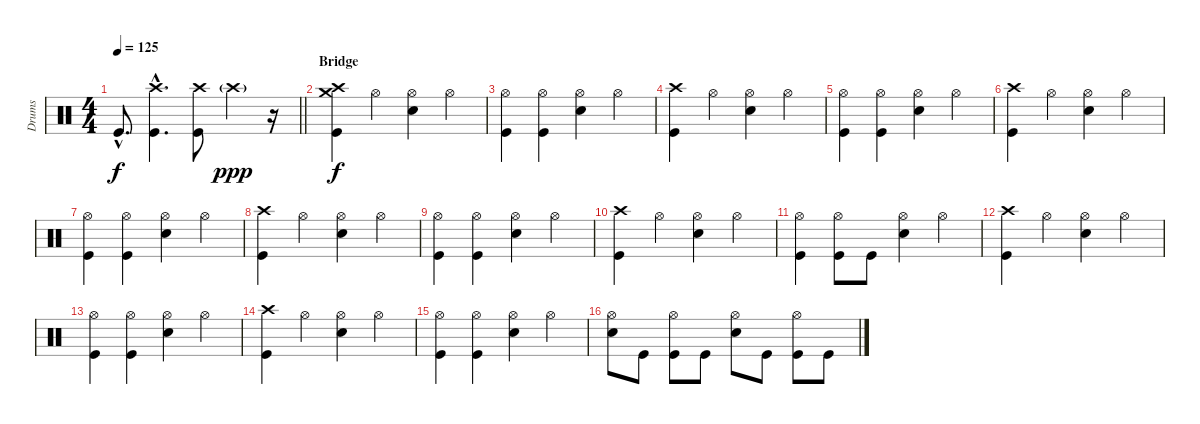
\track ("Drums" "Drums") {instrument percussion}
\staff {score}
\articulation defaults
\ts (4 4)
\tempo 125
\clef neutral
\barLineRight lightlight
\ks c "Kick (hit)"{hac}.8{d dy f}
("Crash high (hit)"{hac} "Kick (hit)"{hac}).4{d} ("Crash high (hit)" "Kick (hit)").8 "Crash high (hit)"{g}.4{dy ppp} r.16 |
\section ("" "Bridge")
("Crash high (hit)" "Crash medium (hit)" "Kick (hit)").4{dy f} "Hi-Hat (open)".4 ("Hi-Hat (open)" "Snare (hit) 2").4 "Hi-Hat (open)".4 |
("Hi-Hat (open)" "Kick (hit)").4 ("Hi-Hat (open)" "Kick (hit)").4 ("Hi-Hat (open)" "Snare (hit) 2").4 "Hi-Hat (open)".4 |
("Crash high (hit)" "Kick (hit)").4 "Hi-Hat (open)".4 ("Hi-Hat (open)" "Snare (hit) 2").4 "Hi-Hat (open)".4 |
("Hi-Hat (open)" "Kick (hit)").4 ("Hi-Hat (open)" "Kick (hit)").4 ("Hi-Hat (open)" "Snare (hit) 2").4 "Hi-Hat (open)".4 |
("Crash high (hit)" "Kick (hit)").4 "Hi-Hat (open)".4 ("Hi-Hat (open)" "Snare (hit) 2").4 "Hi-Hat (open)".4 |
("Hi-Hat (open)" "Kick (hit)").4 ("Hi-Hat (open)" "Kick (hit)").4 ("Hi-Hat (open)" "Snare (hit) 2").4 "Hi-Hat (open)".4 |
("Crash high (hit)" "Kick (hit)").4 "Hi-Hat (open)".4 ("Hi-Hat (open)" "Snare (hit) 2").4 "Hi-Hat (open)".4 |
("Hi-Hat (open)" "Kick (hit)").4 ("Hi-Hat (open)" "Kick (hit)").4 ("Hi-Hat (open)" "Snare (hit) 2").4 "Hi-Hat (open)".4 |
("Crash high (hit)" "Kick (hit)").4 "Hi-Hat (open)".4 ("Hi-Hat (open)" "Snare (hit) 2").4 "Hi-Hat (open)".4 |
("Hi-Hat (open)" "Kick (hit)").4 ("Hi-Hat (open)" "Kick (hit)").8 "Kick (hit)".8 ("Hi-Hat (open)" "Snare (hit) 2").4 "Hi-Hat (open)".4 |
("Crash high (hit)" "Kick (hit)").4 "Hi-Hat (open)".4 ("Hi-Hat (open)" "Snare (hit) 2").4 "Hi-Hat (open)".4 |
("Hi-Hat (open)" "Kick (hit)").4 ("Hi-Hat (open)" "Kick (hit)").4 ("Hi-Hat (open)" "Snare (hit) 2").4 "Hi-Hat (open)".4 |
("Crash high (hit)" "Kick (hit)").4 "Hi-Hat (open)".4 ("Hi-Hat (open)" "Snare (hit) 2").4 "Hi-Hat (open)".4 |
("Hi-Hat (open)" "Kick (hit)").4 ("Hi-Hat (open)" "Kick (hit)").4 ("Hi-Hat (open)" "Snare (hit) 2").4 "Hi-Hat (open)".4 |
("Hi-Hat (open)" "Snare (hit) 2").8 "Kick (hit)".8 ("Hi-Hat (open)" "Kick (hit)").8 "Kick (hit)".8 ("Hi-Hat (open)" "Snare (hit) 2").8 "Kick (hit)".8 ("Hi-Hat (open)" "Kick (hit)").8 "Kick (hit)".8
